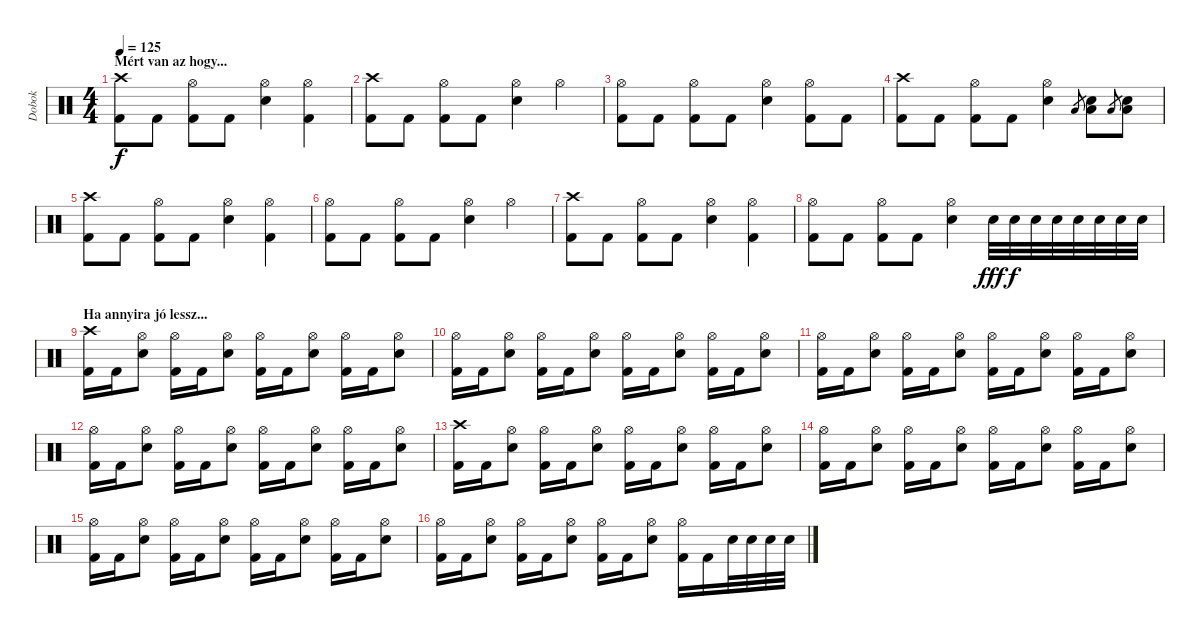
\track ("Dobok" "Dobok") {instrument percussion}
\staff {score}
\articulation defaults
\ts (4 4)
\section ("" "Mért van az hogy...")
\tempo 125
\clef neutral
\ks c
("Crash high (hit)" "Kick (hit) 2").8{dy f} "Kick (hit) 2".8 ("Hi-Hat (open)" "Kick (hit) 2").8 "Kick (hit) 2".8 ("Hi-Hat (open)" "Snare (hit) 2").4 ("Hi-Hat (open)" "Kick (hit) 2").4 |
("Crash high (hit)" "Kick (hit) 2").8 "Kick (hit) 2".8 ("Hi-Hat (open)" "Kick (hit) 2").8 "Kick (hit) 2".8 ("Hi-Hat (open)" "Snare (hit) 2").4 "Hi-Hat (open)".4 |
("Hi-Hat (open)" "Kick (hit) 2").8 "Kick (hit) 2".8 ("Hi-Hat (open)" "Kick (hit) 2").8 "Kick (hit) 2".8 ("Hi-Hat (open)" "Snare (hit) 2").4 ("Hi-Hat (open)" "Kick (hit) 2").8 "Kick (hit) 2".8 |
("Crash high (hit)" "Kick (hit) 2").8 "Kick (hit) 2".8 ("Hi-Hat (open)" "Kick (hit) 2").8 "Kick (hit) 2".8 ("Hi-Hat (open)" "Snare (hit) 2").4 "Low Tom (hit)".8{gr} ("Snare (hit) 2" "Low Tom (hit)").8 "Low Tom (hit)".8{gr} ("Snare (hit) 2" "Low Tom (hit)").8 |
("Crash high (hit)" "Kick (hit) 2").8 "Kick (hit) 2".8 ("Hi-Hat (open)" "Kick (hit) 2").8 "Kick (hit) 2".8 ("Hi-Hat (open)" "Snare (hit) 2").4 ("Hi-Hat (open)" "Kick (hit) 2").4 |
("Hi-Hat (open)" "Kick (hit) 2").8 "Kick (hit) 2".8 ("Hi-Hat (open)" "Kick (hit) 2").8 "Kick (hit) 2".8 ("Hi-Hat (open)" "Snare (hit) 2").4 "Hi-Hat (open)".4 |
("Crash high (hit)" "Kick (hit) 2").8 "Kick (hit) 2".8 ("Hi-Hat (open)" "Kick (hit) 2").8 "Kick (hit) 2".8 ("Hi-Hat (open)" "Snare (hit) 2").4 ("Hi-Hat (open)" "Kick (hit) 2").4 |
("Hi-Hat (open)" "Kick (hit) 2").8 "Kick (hit) 2".8 ("Hi-Hat (open)" "Kick (hit) 2").8 "Kick (hit) 2".8 ("Hi-Hat (open)" "Snare (hit) 2").4 "Snare (hit) 2".32{dy fff} "Snare (hit) 2".32{dy f} "Snare (hit) 2".32 "Snare (hit) 2".32 "Snare (hit) 2".32 "Snare (hit) 2".32 "Snare (hit) 2".32 "Snare (hit) 2".32 |
\section ("" "Ha annyira jó lessz...")
("Crash high (hit)" "Kick (hit) 2").16 "Kick (hit) 2".16 ("Hi-Hat (open)" "Snare (hit) 2").8 ("Hi-Hat (open)" "Kick (hit) 2").16 "Kick (hit) 2".16 ("Hi-Hat (open)" "Snare (hit) 2").8 ("Hi-Hat (open)" "Kick (hit) 2").16 "Kick (hit) 2".16 ("Hi-Hat (open)" "Snare (hit) 2").8 ("Hi-Hat (open)" "Kick (hit) 2").16 "Kick (hit) 2".16 ("Hi-Hat (open)" "Snare (hit) 2").8 |
("Hi-Hat (open)" "Kick (hit) 2").16 "Kick (hit) 2".16 ("Hi-Hat (open)" "Snare (hit) 2").8 ("Hi-Hat (open)" "Kick (hit) 2").16 "Kick (hit) 2".16 ("Hi-Hat (open)" "Snare (hit) 2").8 ("Hi-Hat (open)" "Kick (hit) 2").16 "Kick (hit) 2".16 ("Hi-Hat (open)" "Snare (hit) 2").8 ("Hi-Hat (open)" "Kick (hit) 2").16 "Kick (hit) 2".16 ("Hi-Hat (open)" "Snare (hit) 2").8 |
("Hi-Hat (open)" "Kick (hit) 2").16 "Kick (hit) 2".16 ("Hi-Hat (open)" "Snare (hit) 2").8 ("Hi-Hat (open)" "Kick (hit) 2").16 "Kick (hit) 2".16 ("Hi-Hat (open)" "Snare (hit) 2").8 ("Hi-Hat (open)" "Kick (hit) 2").16 "Kick (hit) 2".16 ("Hi-Hat (open)" "Snare (hit) 2").8 ("Hi-Hat (open)" "Kick (hit) 2").16 "Kick (hit) 2".16 ("Hi-Hat (open)" "Snare (hit) 2").8 |
("Hi-Hat (open)" "Kick (hit) 2").16 "Kick (hit) 2".16 ("Hi-Hat (open)" "Snare (hit) 2").8 ("Hi-Hat (open)" "Kick (hit) 2").16 "Kick (hit) 2".16 ("Hi-Hat (open)" "Snare (hit) 2").8 ("Hi-Hat (open)" "Kick (hit) 2").16 "Kick (hit) 2".16 ("Hi-Hat (open)" "Snare (hit) 2").8 ("Hi-Hat (open)" "Kick (hit) 2").16 "Kick (hit) 2".16 ("Hi-Hat (open)" "Snare (hit) 2").8 |
("Crash high (hit)" "Kick (hit) 2").16 "Kick (hit) 2".16 ("Hi-Hat (open)" "Snare (hit) 2").8 ("Hi-Hat (open)" "Kick (hit) 2").16 "Kick (hit) 2".16 ("Hi-Hat (open)" "Snare (hit) 2").8 ("Hi-Hat (open)" "Kick (hit) 2").16 "Kick (hit) 2".16 ("Hi-Hat (open)" "Snare (hit) 2").8 ("Hi-Hat (open)" "Kick (hit) 2").16 "Kick (hit) 2".16 ("Hi-Hat (open)" "Snare (hit) 2").8 |
("Hi-Hat (open)" "Kick (hit) 2").16 "Kick (hit) 2".16 ("Hi-Hat (open)" "Snare (hit) 2").8 ("Hi-Hat (open)" "Kick (hit) 2").16 "Kick (hit) 2".16 ("Hi-Hat (open)" "Snare (hit) 2").8 ("Hi-Hat (open)" "Kick (hit) 2").16 "Kick (hit) 2".16 ("Hi-Hat (open)" "Snare (hit) 2").8 ("Hi-Hat (open)" "Kick (hit) 2").16 "Kick (hit) 2".16 ("Hi-Hat (open)" "Snare (hit) 2").8 |
("Hi-Hat (open)" "Kick (hit) 2").16 "Kick (hit) 2".16 ("Hi-Hat (open)" "Snare (hit) 2").8 ("Hi-Hat (open)" "Kick (hit) 2").16 "Kick (hit) 2".16 ("Hi-Hat (open)" "Snare (hit) 2").8 ("Hi-Hat (open)" "Kick (hit) 2").16 "Kick (hit) 2".16 ("Hi-Hat (open)" "Snare (hit) 2").8 ("Hi-Hat (open)" "Kick (hit) 2").16 "Kick (hit) 2".16 ("Hi-Hat (open)" "Snare (hit) 2").8 |
("Hi-Hat (open)" "Kick (hit) 2").16 "Kick (hit) 2".16 ("Hi-Hat (open)" "Snare (hit) 2").8 ("Hi-Hat (open)" "Kick (hit) 2").16 "Kick (hit) 2".16 ("Hi-Hat (open)" "Snare (hit) 2").8 ("Hi-Hat (open)" "Kick (hit) 2").16 "Kick (hit) 2".16 ("Hi-Hat (open)" "Snare (hit) 2").8 ("Hi-Hat (open)" "Kick (hit) 2").16 "Kick (hit) 2".16 "Snare (hit) 2".32 "Snare (hit) 2".32 "Snare (hit) 2".32 "Snare (hit) 2".32
